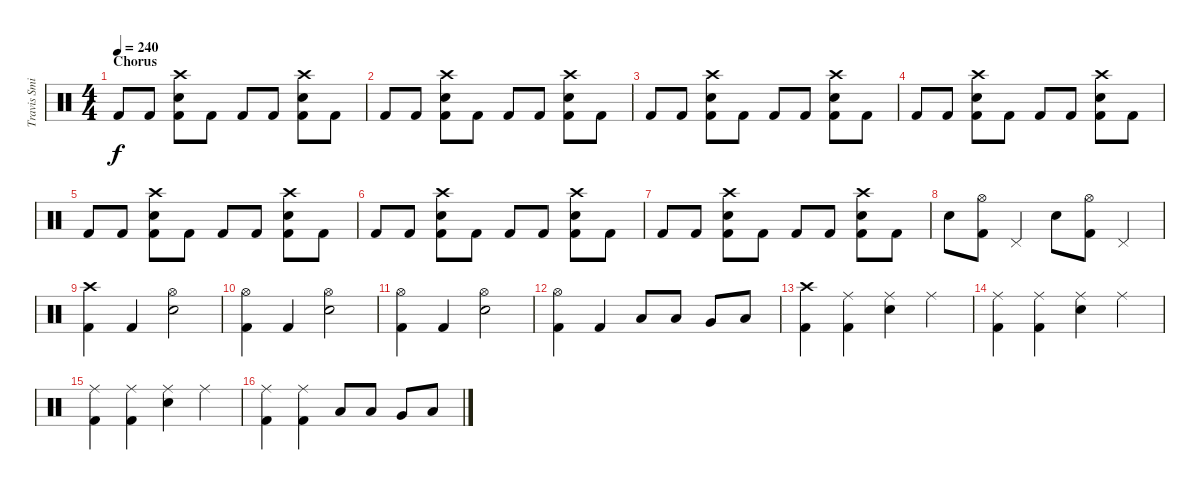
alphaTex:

\track ("Travis Smith" "Travis Smi") {instrument percussion}
\staff {score}
\articulation defaults
\ts (4 4)
\section ("" "Chorus")
\tempo 240
\clef neutral
\ks c "Kick (hit) 2".8{dy f} "Kick (hit) 2".8
("Kick (hit) 2" "Snare (hit) 2" "Crash high (hit)").8 "Kick (hit) 2".8 "Kick (hit) 2".8 "Kick (hit) 2".8 ("Kick (hit) 2" "Snare (hit) 2" "Crash high (hit)").8 "Kick (hit) 2".8 |
"Kick (hit) 2".8 "Kick (hit) 2".8 ("Kick (hit) 2" "Snare (hit) 2" "Crash high (hit)").8 "Kick (hit) 2".8 "Kick (hit) 2".8 "Kick (hit) 2".8 ("Kick (hit) 2" "Snare (hit) 2" "Crash high (hit)").8 "Kick (hit) 2".8 |
"Kick (hit) 2".8 "Kick (hit) 2".8 ("Kick (hit) 2" "Snare (hit) 2" "Crash high (hit)").8 "Kick (hit) 2".8 "Kick (hit) 2".8 "Kick (hit) 2".8 ("Kick (hit) 2" "Snare (hit) 2" "Crash high (hit)").8 "Kick (hit) 2".8 |
"Kick (hit) 2".8 "Kick (hit) 2".8 ("Kick (hit) 2" "Snare (hit) 2" "Crash high (hit)").8 "Kick (hit) 2".8 "Kick (hit) 2".8 "Kick (hit) 2".8 ("Kick (hit) 2" "Snare (hit) 2" "Crash high (hit)").8 "Kick (hit) 2".8 |
"Kick (hit) 2".8 "Kick (hit) 2".8 ("Kick (hit) 2" "Snare (hit) 2" "Crash high (hit)").8 "Kick (hit) 2".8 "Kick (hit) 2".8 "Kick (hit) 2".8 ("Kick (hit) 2" "Snare (hit) 2" "Crash high (hit)").8 "Kick (hit) 2".8 |
"Kick (hit) 2".8 "Kick (hit) 2".8 ("Kick (hit) 2" "Snare (hit) 2" "Crash high (hit)").8 "Kick (hit) 2".8 "Kick (hit) 2".8 "Kick (hit) 2".8 ("Kick (hit) 2" "Snare (hit) 2" "Crash high (hit)").8 "Kick (hit) 2".8 |
"Kick (hit) 2".8 "Kick (hit) 2".8 ("Kick (hit) 2" "Snare (hit) 2" "Crash high (hit)").8 "Kick (hit) 2".8 "Kick (hit) 2".8 "Kick (hit) 2".8 ("Kick (hit) 2" "Snare (hit) 2" "Crash high (hit)").8 "Kick (hit) 2".8 |
"Snare (hit) 2".8 ("Kick (hit) 2" "Hi-Hat (open)").8 "Pedal Hi-Hat (hit)".4 "Snare (hit) 2".8 ("Kick (hit) 2" "Hi-Hat (open)").8 "Pedal Hi-Hat (hit)".4 |
("Kick (hit) 2" "Crash high (hit)").4 "Kick (hit) 2".4 ("Snare (hit) 2" "Hi-Hat (open)").2 |
("Kick (hit) 2" "Hi-Hat (open)").4 "Kick (hit) 2".4 ("Snare (hit) 2" "Hi-Hat (open)").2 |
("Kick (hit) 2" "Hi-Hat (open)").4 "Kick (hit) 2".4 ("Snare (hit) 2" "Hi-Hat (open)").2 |
("Kick (hit) 2" "Hi-Hat (open)").4 "Kick (hit) 2".4 "Low Tom (hit)".8 "Low Tom (hit)".8 "Very Low Tom (hit)".8 "Low Floor Tom (hit)".8 |
("Kick (hit) 2" "Crash high (hit)").4 ("Kick (hit) 2" "Ride (middle)").4 ("Snare (hit) 2" "Ride (middle)").4 "Ride (middle)".4 |
("Kick (hit) 2" "Ride (middle)").4 ("Kick (hit) 2" "Ride (middle)").4 ("Snare (hit) 2" "Ride (middle)").4 "Ride (middle)".4 |
("Kick (hit) 2" "Ride (middle)").4 ("Kick (hit) 2" "Ride (middle)").4 ("Snare (hit) 2" "Ride (middle)").4 "Ride (middle)".4 |
("Kick (hit) 2" "Ride (middle)").4 ("Kick (hit) 2" "Ride (middle)").4 "Low Tom (hit)".8 "Low Tom (hit)".8 "Very Low Tom (hit)".8 "Low Floor Tom (hit)".8
